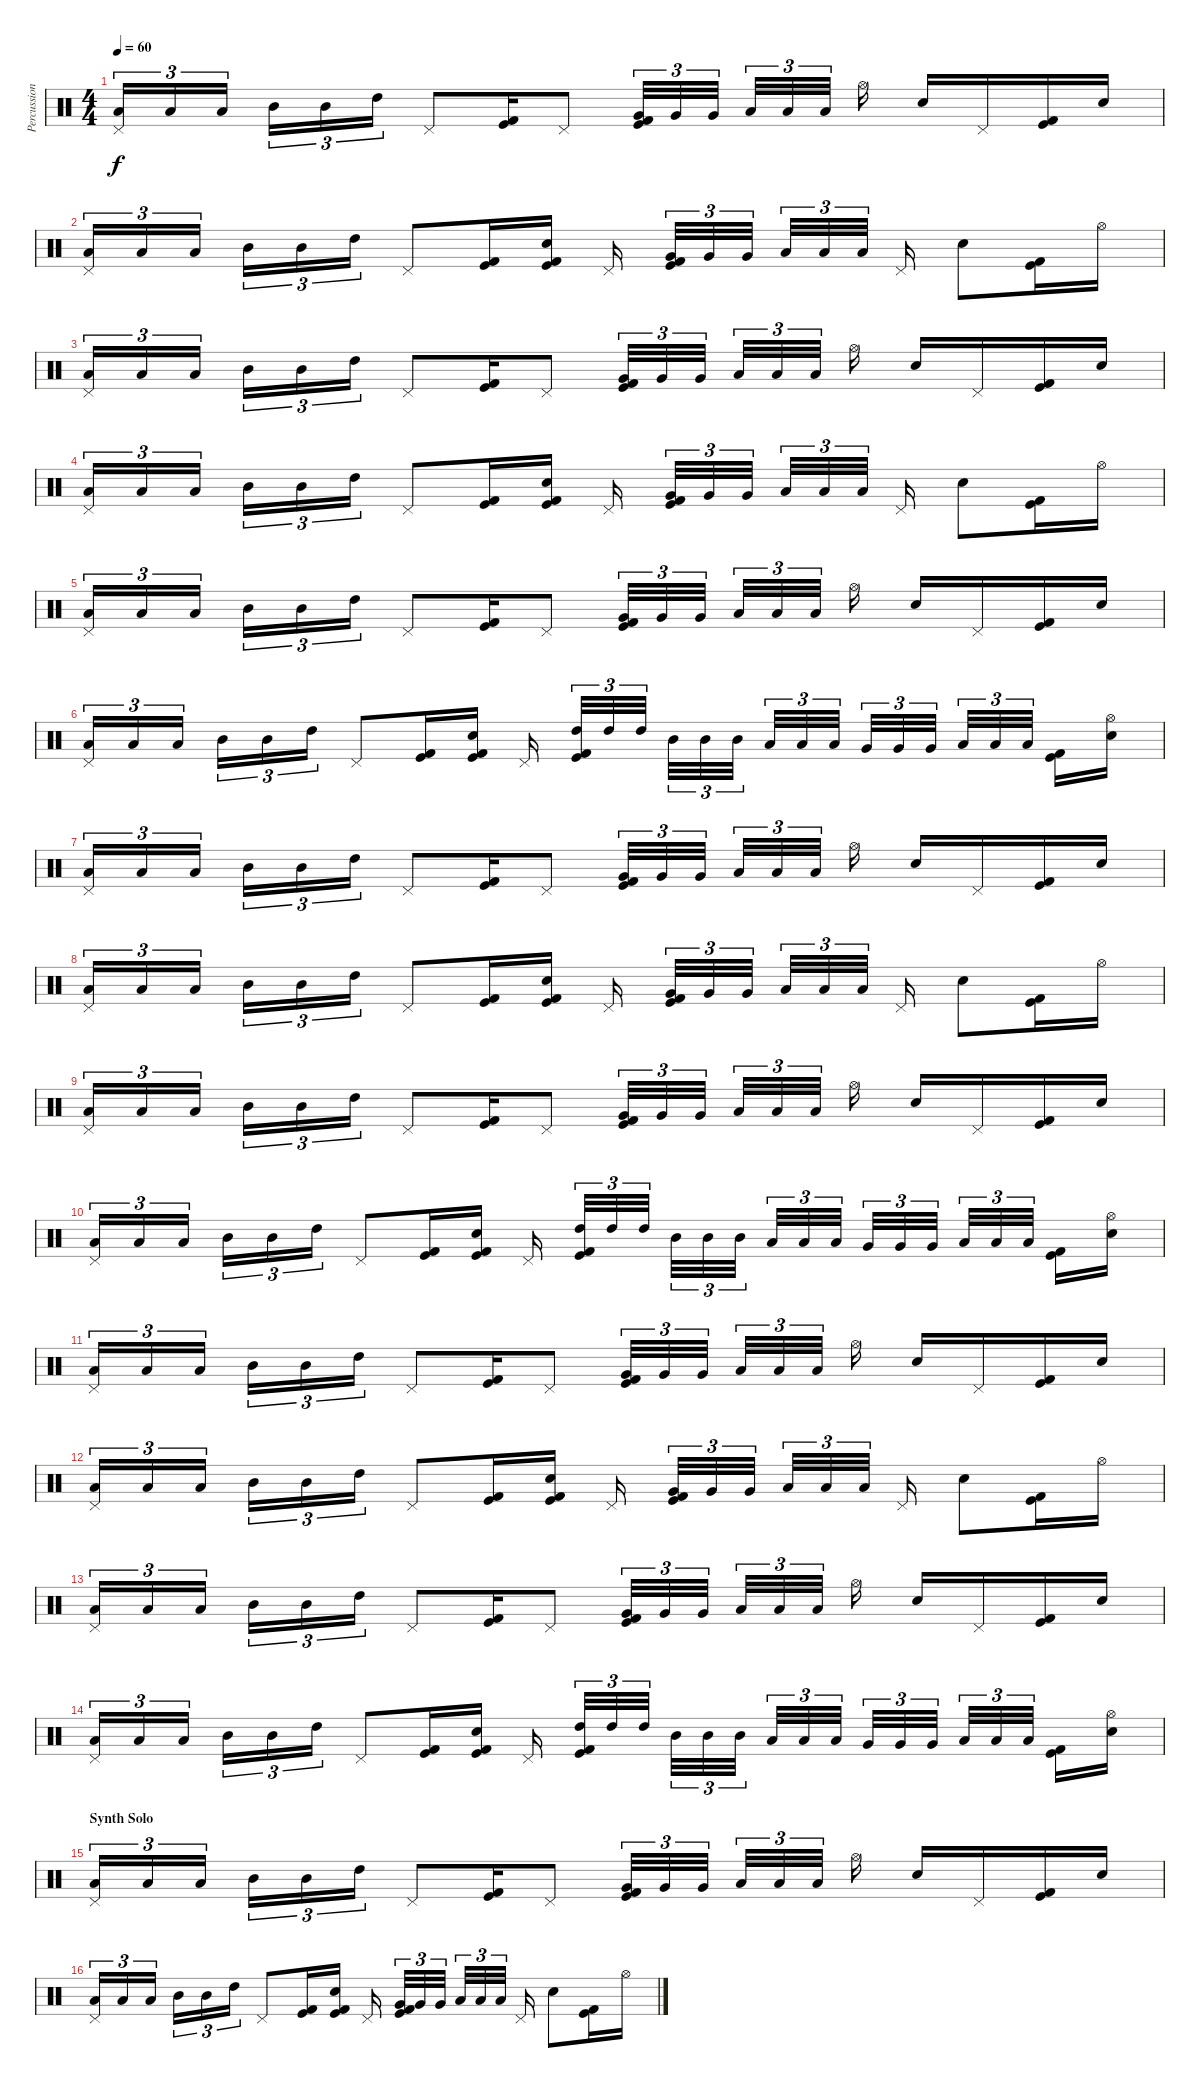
\track ("Percussion" "Percussion") {instrument percussion}
\staff {score}
\articulation defaults
\ts (4 4)
\tempo 60
\clef neutral
\ks c
("Pedal Hi-Hat (hit)" "Low Tom (hit)").16{tu (3 2) dy f} "Low Tom (hit)".16{tu (3 2)} "Low Tom (hit)".16{tu (3 2)} "Mid Tom (hit)".16{tu (3 2)} "Mid Tom (hit)".16{tu (3 2)} "High Tom (hit)".16{tu (3 2)} "Pedal Hi-Hat (hit)".8 ("Kick (hit) 2" "Kick (hit)").16 "Pedal Hi-Hat (hit)".8 ("Very Low Tom (hit)" "Kick (hit) 2" "Kick (hit)").32{tu (3 2)} "Very Low Tom (hit)".32{tu (3 2)} "Very Low Tom (hit)".32{tu (3 2)} "Low Floor Tom (hit)".32{tu (3 2)} "Low Floor Tom (hit)".32{tu (3 2)} "Low Floor Tom (hit)".32{tu (3 2)} "Hi-Hat (open)".16 "Snare (hit) 2".16 "Pedal Hi-Hat (hit)".16 ("Kick (hit) 2" "Kick (hit)").16 "Snare (hit) 2".16 |
("Pedal Hi-Hat (hit)" "Low Tom (hit)").16{tu (3 2)} "Low Tom (hit)".16{tu (3 2)} "Low Tom (hit)".16{tu (3 2)} "Mid Tom (hit)".16{tu (3 2)} "Mid Tom (hit)".16{tu (3 2)} "High Tom (hit)".16{tu (3 2)} "Pedal Hi-Hat (hit)".8 ("Kick (hit) 2" "Kick (hit)").16 ("Snare (hit) 2" "Kick (hit) 2" "Kick (hit)").16 "Pedal Hi-Hat (hit)".16 ("Very Low Tom (hit)" "Kick (hit) 2" "Kick (hit)").32{tu (3 2)} "Very Low Tom (hit)".32{tu (3 2)} "Very Low Tom (hit)".32{tu (3 2)} "Low Floor Tom (hit)".32{tu (3 2)} "Low Floor Tom (hit)".32{tu (3 2)} "Low Floor Tom (hit)".32{tu (3 2)} "Pedal Hi-Hat (hit)".16 "Snare (hit) 2".8 ("Kick (hit) 2" "Kick (hit)").16 "Hi-Hat (open)".16 |
("Pedal Hi-Hat (hit)" "Low Tom (hit)").16{tu (3 2)} "Low Tom (hit)".16{tu (3 2)} "Low Tom (hit)".16{tu (3 2)} "Mid Tom (hit)".16{tu (3 2)} "Mid Tom (hit)".16{tu (3 2)} "High Tom (hit)".16{tu (3 2)} "Pedal Hi-Hat (hit)".8 ("Kick (hit) 2" "Kick (hit)").16 "Pedal Hi-Hat (hit)".8 ("Very Low Tom (hit)" "Kick (hit) 2" "Kick (hit)").32{tu (3 2)} "Very Low Tom (hit)".32{tu (3 2)} "Very Low Tom (hit)".32{tu (3 2)} "Low Floor Tom (hit)".32{tu (3 2)} "Low Floor Tom (hit)".32{tu (3 2)} "Low Floor Tom (hit)".32{tu (3 2)} "Hi-Hat (open)".16 "Snare (hit) 2".16 "Pedal Hi-Hat (hit)".16 ("Kick (hit) 2" "Kick (hit)").16 "Snare (hit) 2".16 |
("Pedal Hi-Hat (hit)" "Low Tom (hit)").16{tu (3 2)} "Low Tom (hit)".16{tu (3 2)} "Low Tom (hit)".16{tu (3 2)} "Mid Tom (hit)".16{tu (3 2)} "Mid Tom (hit)".16{tu (3 2)} "High Tom (hit)".16{tu (3 2)} "Pedal Hi-Hat (hit)".8 ("Kick (hit) 2" "Kick (hit)").16 ("Snare (hit) 2" "Kick (hit) 2" "Kick (hit)").16 "Pedal Hi-Hat (hit)".16 ("Very Low Tom (hit)" "Kick (hit) 2" "Kick (hit)").32{tu (3 2)} "Very Low Tom (hit)".32{tu (3 2)} "Very Low Tom (hit)".32{tu (3 2)} "Low Floor Tom (hit)".32{tu (3 2)} "Low Floor Tom (hit)".32{tu (3 2)} "Low Floor Tom (hit)".32{tu (3 2)} "Pedal Hi-Hat (hit)".16 "Snare (hit) 2".8 ("Kick (hit) 2" "Kick (hit)").16 "Hi-Hat (open)".16 |
("Pedal Hi-Hat (hit)" "Low Tom (hit)").16{tu (3 2)} "Low Tom (hit)".16{tu (3 2)} "Low Tom (hit)".16{tu (3 2)} "Mid Tom (hit)".16{tu (3 2)} "Mid Tom (hit)".16{tu (3 2)} "High Tom (hit)".16{tu (3 2)} "Pedal Hi-Hat (hit)".8 ("Kick (hit) 2" "Kick (hit)").16 "Pedal Hi-Hat (hit)".8 ("Very Low Tom (hit)" "Kick (hit) 2" "Kick (hit)").32{tu (3 2)} "Very Low Tom (hit)".32{tu (3 2)} "Very Low Tom (hit)".32{tu (3 2)} "Low Floor Tom (hit)".32{tu (3 2)} "Low Floor Tom (hit)".32{tu (3 2)} "Low Floor Tom (hit)".32{tu (3 2)} "Hi-Hat (open)".16 "Snare (hit) 2".16 "Pedal Hi-Hat (hit)".16 ("Kick (hit) 2" "Kick (hit)").16 "Snare (hit) 2".16 |
("Pedal Hi-Hat (hit)" "Low Tom (hit)").16{tu (3 2)} "Low Tom (hit)".16{tu (3 2)} "Low Tom (hit)".16{tu (3 2)} "Mid Tom (hit)".16{tu (3 2)} "Mid Tom (hit)".16{tu (3 2)} "High Tom (hit)".16{tu (3 2)} "Pedal Hi-Hat (hit)".8 ("Kick (hit) 2" "Kick (hit)").16 ("Snare (hit) 2" "Kick (hit) 2" "Kick (hit)").16 "Pedal Hi-Hat (hit)".16 ("High Tom (hit)" "Kick (hit) 2" "Kick (hit)").32{tu (3 2)} "High Tom (hit)".32{tu (3 2)} "High Tom (hit)".32{tu (3 2)} "Mid Tom (hit)".32{tu (3 2)} "Mid Tom (hit)".32{tu (3 2)} "Mid Tom (hit)".32{tu (3 2)} "Low Tom (hit)".32{tu (3 2)} "Low Tom (hit)".32{tu (3 2)} "Low Tom (hit)".32{tu (3 2)} "Very Low Tom (hit)".32{tu (3 2)} "Very Low Tom (hit)".32{tu (3 2)} "Very Low Tom (hit)".32{tu (3 2)} "Low Floor Tom (hit)".32{tu (3 2)} "Low Floor Tom (hit)".32{tu (3 2)} "Low Floor Tom (hit)".32{tu (3 2)} ("Kick (hit) 2" "Kick (hit)").16 ("Hi-Hat (open)" "Snare (hit) 2").16 |
("Pedal Hi-Hat (hit)" "Low Tom (hit)").16{tu (3 2)} "Low Tom (hit)".16{tu (3 2)} "Low Tom (hit)".16{tu (3 2)} "Mid Tom (hit)".16{tu (3 2)} "Mid Tom (hit)".16{tu (3 2)} "High Tom (hit)".16{tu (3 2)} "Pedal Hi-Hat (hit)".8 ("Kick (hit) 2" "Kick (hit)").16 "Pedal Hi-Hat (hit)".8 ("Very Low Tom (hit)" "Kick (hit) 2" "Kick (hit)").32{tu (3 2)} "Very Low Tom (hit)".32{tu (3 2)} "Very Low Tom (hit)".32{tu (3 2)} "Low Floor Tom (hit)".32{tu (3 2)} "Low Floor Tom (hit)".32{tu (3 2)} "Low Floor Tom (hit)".32{tu (3 2)} "Hi-Hat (open)".16 "Snare (hit) 2".16 "Pedal Hi-Hat (hit)".16 ("Kick (hit) 2" "Kick (hit)").16 "Snare (hit) 2".16 |
("Pedal Hi-Hat (hit)" "Low Tom (hit)").16{tu (3 2)} "Low Tom (hit)".16{tu (3 2)} "Low Tom (hit)".16{tu (3 2)} "Mid Tom (hit)".16{tu (3 2)} "Mid Tom (hit)".16{tu (3 2)} "High Tom (hit)".16{tu (3 2)} "Pedal Hi-Hat (hit)".8 ("Kick (hit) 2" "Kick (hit)").16 ("Snare (hit) 2" "Kick (hit) 2" "Kick (hit)").16 "Pedal Hi-Hat (hit)".16 ("Very Low Tom (hit)" "Kick (hit) 2" "Kick (hit)").32{tu (3 2)} "Very Low Tom (hit)".32{tu (3 2)} "Very Low Tom (hit)".32{tu (3 2)} "Low Floor Tom (hit)".32{tu (3 2)} "Low Floor Tom (hit)".32{tu (3 2)} "Low Floor Tom (hit)".32{tu (3 2)} "Pedal Hi-Hat (hit)".16 "Snare (hit) 2".8 ("Kick (hit) 2" "Kick (hit)").16 "Hi-Hat (open)".16 |
("Pedal Hi-Hat (hit)" "Low Tom (hit)").16{tu (3 2)} "Low Tom (hit)".16{tu (3 2)} "Low Tom (hit)".16{tu (3 2)} "Mid Tom (hit)".16{tu (3 2)} "Mid Tom (hit)".16{tu (3 2)} "High Tom (hit)".16{tu (3 2)} "Pedal Hi-Hat (hit)".8 ("Kick (hit) 2" "Kick (hit)").16 "Pedal Hi-Hat (hit)".8 ("Very Low Tom (hit)" "Kick (hit) 2" "Kick (hit)").32{tu (3 2)} "Very Low Tom (hit)".32{tu (3 2)} "Very Low Tom (hit)".32{tu (3 2)} "Low Floor Tom (hit)".32{tu (3 2)} "Low Floor Tom (hit)".32{tu (3 2)} "Low Floor Tom (hit)".32{tu (3 2)} "Hi-Hat (open)".16 "Snare (hit) 2".16 "Pedal Hi-Hat (hit)".16 ("Kick (hit) 2" "Kick (hit)").16 "Snare (hit) 2".16 |
("Pedal Hi-Hat (hit)" "Low Tom (hit)").16{tu (3 2)} "Low Tom (hit)".16{tu (3 2)} "Low Tom (hit)".16{tu (3 2)} "Mid Tom (hit)".16{tu (3 2)} "Mid Tom (hit)".16{tu (3 2)} "High Tom (hit)".16{tu (3 2)} "Pedal Hi-Hat (hit)".8 ("Kick (hit) 2" "Kick (hit)").16 ("Snare (hit) 2" "Kick (hit) 2" "Kick (hit)").16 "Pedal Hi-Hat (hit)".16 ("High Tom (hit)" "Kick (hit) 2" "Kick (hit)").32{tu (3 2)} "High Tom (hit)".32{tu (3 2)} "High Tom (hit)".32{tu (3 2)} "Mid Tom (hit)".32{tu (3 2)} "Mid Tom (hit)".32{tu (3 2)} "Mid Tom (hit)".32{tu (3 2)} "Low Tom (hit)".32{tu (3 2)} "Low Tom (hit)".32{tu (3 2)} "Low Tom (hit)".32{tu (3 2)} "Very Low Tom (hit)".32{tu (3 2)} "Very Low Tom (hit)".32{tu (3 2)} "Very Low Tom (hit)".32{tu (3 2)} "Low Floor Tom (hit)".32{tu (3 2)} "Low Floor Tom (hit)".32{tu (3 2)} "Low Floor Tom (hit)".32{tu (3 2)} ("Kick (hit) 2" "Kick (hit)").16 ("Hi-Hat (open)" "Snare (hit) 2").16 |
("Pedal Hi-Hat (hit)" "Low Tom (hit)").16{tu (3 2)} "Low Tom (hit)".16{tu (3 2)} "Low Tom (hit)".16{tu (3 2)} "Mid Tom (hit)".16{tu (3 2)} "Mid Tom (hit)".16{tu (3 2)} "High Tom (hit)".16{tu (3 2)} "Pedal Hi-Hat (hit)".8 ("Kick (hit) 2" "Kick (hit)").16 "Pedal Hi-Hat (hit)".8 ("Very Low Tom (hit)" "Kick (hit) 2" "Kick (hit)").32{tu (3 2)} "Very Low Tom (hit)".32{tu (3 2)} "Very Low Tom (hit)".32{tu (3 2)} "Low Floor Tom (hit)".32{tu (3 2)} "Low Floor Tom (hit)".32{tu (3 2)} "Low Floor Tom (hit)".32{tu (3 2)} "Hi-Hat (open)".16 "Snare (hit) 2".16 "Pedal Hi-Hat (hit)".16 ("Kick (hit) 2" "Kick (hit)").16 "Snare (hit) 2".16 |
("Pedal Hi-Hat (hit)" "Low Tom (hit)").16{tu (3 2)} "Low Tom (hit)".16{tu (3 2)} "Low Tom (hit)".16{tu (3 2)} "Mid Tom (hit)".16{tu (3 2)} "Mid Tom (hit)".16{tu (3 2)} "High Tom (hit)".16{tu (3 2)} "Pedal Hi-Hat (hit)".8 ("Kick (hit) 2" "Kick (hit)").16 ("Snare (hit) 2" "Kick (hit) 2" "Kick (hit)").16 "Pedal Hi-Hat (hit)".16 ("Very Low Tom (hit)" "Kick (hit) 2" "Kick (hit)").32{tu (3 2)} "Very Low Tom (hit)".32{tu (3 2)} "Very Low Tom (hit)".32{tu (3 2)} "Low Floor Tom (hit)".32{tu (3 2)} "Low Floor Tom (hit)".32{tu (3 2)} "Low Floor Tom (hit)".32{tu (3 2)} "Pedal Hi-Hat (hit)".16 "Snare (hit) 2".8 ("Kick (hit) 2" "Kick (hit)").16 "Hi-Hat (open)".16 |
("Pedal Hi-Hat (hit)" "Low Tom (hit)").16{tu (3 2)} "Low Tom (hit)".16{tu (3 2)} "Low Tom (hit)".16{tu (3 2)} "Mid Tom (hit)".16{tu (3 2)} "Mid Tom (hit)".16{tu (3 2)} "High Tom (hit)".16{tu (3 2)} "Pedal Hi-Hat (hit)".8 ("Kick (hit) 2" "Kick (hit)").16 "Pedal Hi-Hat (hit)".8 ("Very Low Tom (hit)" "Kick (hit) 2" "Kick (hit)").32{tu (3 2)} "Very Low Tom (hit)".32{tu (3 2)} "Very Low Tom (hit)".32{tu (3 2)} "Low Floor Tom (hit)".32{tu (3 2)} "Low Floor Tom (hit)".32{tu (3 2)} "Low Floor Tom (hit)".32{tu (3 2)} "Hi-Hat (open)".16 "Snare (hit) 2".16 "Pedal Hi-Hat (hit)".16 ("Kick (hit) 2" "Kick (hit)").16 "Snare (hit) 2".16 |
("Pedal Hi-Hat (hit)" "Low Tom (hit)").16{tu (3 2)} "Low Tom (hit)".16{tu (3 2)} "Low Tom (hit)".16{tu (3 2)} "Mid Tom (hit)".16{tu (3 2)} "Mid Tom (hit)".16{tu (3 2)} "High Tom (hit)".16{tu (3 2)} "Pedal Hi-Hat (hit)".8 ("Kick (hit) 2" "Kick (hit)").16 ("Snare (hit) 2" "Kick (hit) 2" "Kick (hit)").16 "Pedal Hi-Hat (hit)".16 ("High Tom (hit)" "Kick (hit) 2" "Kick (hit)").32{tu (3 2)} "High Tom (hit)".32{tu (3 2)} "High Tom (hit)".32{tu (3 2)} "Mid Tom (hit)".32{tu (3 2)} "Mid Tom (hit)".32{tu (3 2)} "Mid Tom (hit)".32{tu (3 2)} "Low Tom (hit)".32{tu (3 2)} "Low Tom (hit)".32{tu (3 2)} "Low Tom (hit)".32{tu (3 2)} "Very Low Tom (hit)".32{tu (3 2)} "Very Low Tom (hit)".32{tu (3 2)} "Very Low Tom (hit)".32{tu (3 2)} "Low Floor Tom (hit)".32{tu (3 2)} "Low Floor Tom (hit)".32{tu (3 2)} "Low Floor Tom (hit)".32{tu (3 2)} ("Kick (hit) 2" "Kick (hit)").16 ("Hi-Hat (open)" "Snare (hit) 2").16 |
\section ("" "Synth Solo")
("Pedal Hi-Hat (hit)" "Low Tom (hit)").16{tu (3 2)} "Low Tom (hit)".16{tu (3 2)} "Low Tom (hit)".16{tu (3 2)} "Mid Tom (hit)".16{tu (3 2)} "Mid Tom (hit)".16{tu (3 2)} "High Tom (hit)".16{tu (3 2)} "Pedal Hi-Hat (hit)".8 ("Kick (hit) 2" "Kick (hit)").16 "Pedal Hi-Hat (hit)".8 ("Very Low Tom (hit)" "Kick (hit) 2" "Kick (hit)").32{tu (3 2)} "Very Low Tom (hit)".32{tu (3 2)} "Very Low Tom (hit)".32{tu (3 2)} "Low Floor Tom (hit)".32{tu (3 2)} "Low Floor Tom (hit)".32{tu (3 2)} "Low Floor Tom (hit)".32{tu (3 2)} "Hi-Hat (open)".16 "Snare (hit) 2".16 "Pedal Hi-Hat (hit)".16 ("Kick (hit) 2" "Kick (hit)").16 "Snare (hit) 2".16 |
("Pedal Hi-Hat (hit)" "Low Tom (hit)").16{tu (3 2)} "Low Tom (hit)".16{tu (3 2)} "Low Tom (hit)".16{tu (3 2)} "Mid Tom (hit)".16{tu (3 2)} "Mid Tom (hit)".16{tu (3 2)} "High Tom (hit)".16{tu (3 2)} "Pedal Hi-Hat (hit)".8 ("Kick (hit) 2" "Kick (hit)").16 ("Snare (hit) 2" "Kick (hit) 2" "Kick (hit)").16 "Pedal Hi-Hat (hit)".16 ("Very Low Tom (hit)" "Kick (hit) 2" "Kick (hit)").32{tu (3 2)} "Very Low Tom (hit)".32{tu (3 2)} "Very Low Tom (hit)".32{tu (3 2)} "Low Floor Tom (hit)".32{tu (3 2)} "Low Floor Tom (hit)".32{tu (3 2)} "Low Floor Tom (hit)".32{tu (3 2)} "Pedal Hi-Hat (hit)".16 "Snare (hit) 2".8 ("Kick (hit) 2" "Kick (hit)").16 "Hi-Hat (open)".16
